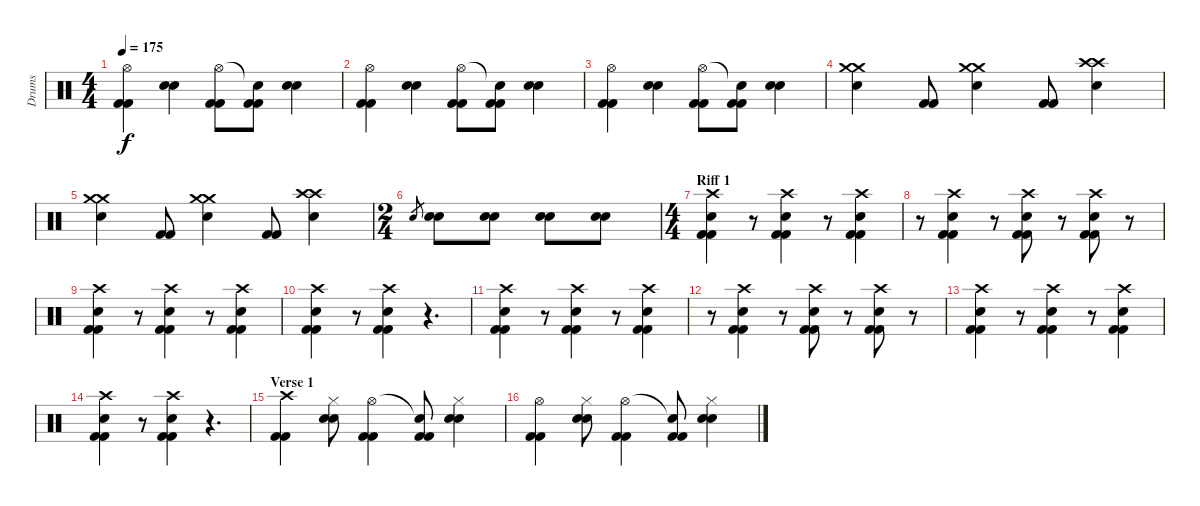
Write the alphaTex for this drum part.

\track ("Drums" "Drums") {instrument percussion}
\staff {score}
\articulation defaults
\ts (4 4)
\tempo 175
\clef neutral
\ks c
("Kick (hit) 2" "Kick (hit) 2" "Hi-Hat (open)").4{dy f} ("Snare (hit) 2" "Snare (hit) 2").4 ("Kick (hit) 2" "Kick (hit) 2" "Hi-Hat (open)").8 ("Kick (hit) 2" "Kick (hit) 2" "Snare (hit)"{t}).8 ("Snare (hit) 2" "Snare (hit) 2").4 |
("Kick (hit) 2" "Kick (hit) 2" "Hi-Hat (open)").4 ("Snare (hit) 2" "Snare (hit) 2").4 ("Kick (hit) 2" "Kick (hit) 2" "Hi-Hat (open)").8 ("Kick (hit) 2" "Kick (hit) 2" "Snare (hit)"{t}).8 ("Snare (hit) 2" "Snare (hit) 2").4 |
("Kick (hit) 2" "Kick (hit) 2" "Hi-Hat (open)").4 ("Snare (hit) 2" "Snare (hit) 2").4 ("Kick (hit) 2" "Kick (hit) 2" "Hi-Hat (open)").8 ("Kick (hit) 2" "Kick (hit) 2" "Snare (hit)"{t}).8 ("Snare (hit) 2" "Snare (hit) 2").4 |
("Crash medium (hit)" "Crash medium (hit)" "Snare (hit) 2").4 ("Kick (hit) 2" "Kick (hit) 2").8 ("Crash medium (hit)" "Crash medium (hit)" "Snare (hit) 2").4 ("Kick (hit) 2" "Kick (hit) 2").8 ("Crash high (hit)" "Crash high (hit)" "Snare (hit) 2").4 |
("Crash medium (hit)" "Crash medium (hit)" "Snare (hit) 2").4 ("Kick (hit) 2" "Kick (hit) 2").8 ("Crash medium (hit)" "Crash medium (hit)" "Snare (hit) 2").4 ("Kick (hit) 2" "Kick (hit) 2").8 ("Crash high (hit)" "Crash high (hit)" "Snare (hit) 2").4 |
\ts (2 4)
"Snare (hit) 2".8{gr} ("Snare (hit) 2" "Snare (hit) 2").8 ("Snare (hit) 2" "Snare (hit) 2").8 ("Snare (hit) 2" "Snare (hit) 2").8 ("Snare (hit) 2" "Snare (hit) 2").8 |
\ts (4 4)
\section ("" "Riff 1")
("Crash high (hit)" "Snare (hit) 2" "Kick (hit) 2" "Kick (hit) 2").4 r.8 ("Crash high (hit)" "Snare (hit) 2" "Kick (hit) 2" "Kick (hit) 2").4 r.8 ("Crash high (hit)" "Snare (hit) 2" "Kick (hit) 2" "Kick (hit) 2").4 |
r.8 ("Crash high (hit)" "Snare (hit) 2" "Kick (hit) 2" "Kick (hit) 2").4 r.8 ("Crash high (hit)" "Snare (hit) 2" "Kick (hit) 2" "Kick (hit) 2").8 r.8 ("Crash high (hit)" "Snare (hit) 2" "Kick (hit) 2" "Kick (hit) 2").8 r.8 |
("Crash high (hit)" "Snare (hit) 2" "Kick (hit) 2" "Kick (hit) 2").4 r.8 ("Crash high (hit)" "Snare (hit) 2" "Kick (hit) 2" "Kick (hit) 2").4 r.8 ("Crash high (hit)" "Snare (hit) 2" "Kick (hit) 2" "Kick (hit) 2").4 |
("Crash high (hit)" "Snare (hit) 2" "Kick (hit) 2" "Kick (hit) 2").4 r.8 ("Crash high (hit)" "Snare (hit) 2" "Kick (hit) 2" "Kick (hit) 2").4 r.4{d} |
("Crash high (hit)" "Snare (hit) 2" "Kick (hit) 2" "Kick (hit) 2").4 r.8 ("Crash high (hit)" "Snare (hit) 2" "Kick (hit) 2" "Kick (hit) 2").4 r.8 ("Crash high (hit)" "Snare (hit) 2" "Kick (hit) 2" "Kick (hit) 2").4 |
r.8 ("Crash high (hit)" "Snare (hit) 2" "Kick (hit) 2" "Kick (hit) 2").4 r.8 ("Crash high (hit)" "Snare (hit) 2" "Kick (hit) 2" "Kick (hit) 2").8 r.8 ("Crash high (hit)" "Snare (hit) 2" "Kick (hit) 2" "Kick (hit) 2").8 r.8 |
("Crash high (hit)" "Snare (hit) 2" "Kick (hit) 2" "Kick (hit) 2").4 r.8 ("Crash high (hit)" "Snare (hit) 2" "Kick (hit) 2" "Kick (hit) 2").4 r.8 ("Crash high (hit)" "Snare (hit) 2" "Kick (hit) 2" "Kick (hit) 2").4 |
("Crash high (hit)" "Snare (hit) 2" "Kick (hit) 2" "Kick (hit) 2").4 r.8 ("Crash high (hit)" "Snare (hit) 2" "Kick (hit) 2" "Kick (hit) 2").4 r.4{d} |
\section ("" "Verse 1")
("Crash high (hit)" "Kick (hit) 2" "Kick (hit) 2").4 ("Hi-Hat (closed)" "Snare (hit) 2" "Snare (hit) 2").8 ("Hi-Hat (open)" "Kick (hit) 2" "Kick (hit) 2").4 ("Snare (hit)"{t} "Kick (hit) 2" "Kick (hit) 2").8 ("Hi-Hat (closed)" "Snare (hit) 2" "Snare (hit) 2").4 |
("Hi-Hat (open)" "Kick (hit) 2" "Kick (hit) 2").4 ("Hi-Hat (closed)" "Snare (hit) 2" "Snare (hit) 2").8 ("Hi-Hat (open)" "Kick (hit) 2" "Kick (hit) 2").4 ("Snare (hit)"{t} "Kick (hit) 2" "Kick (hit) 2").8 ("Hi-Hat (closed)" "Snare (hit) 2" "Snare (hit) 2").4
